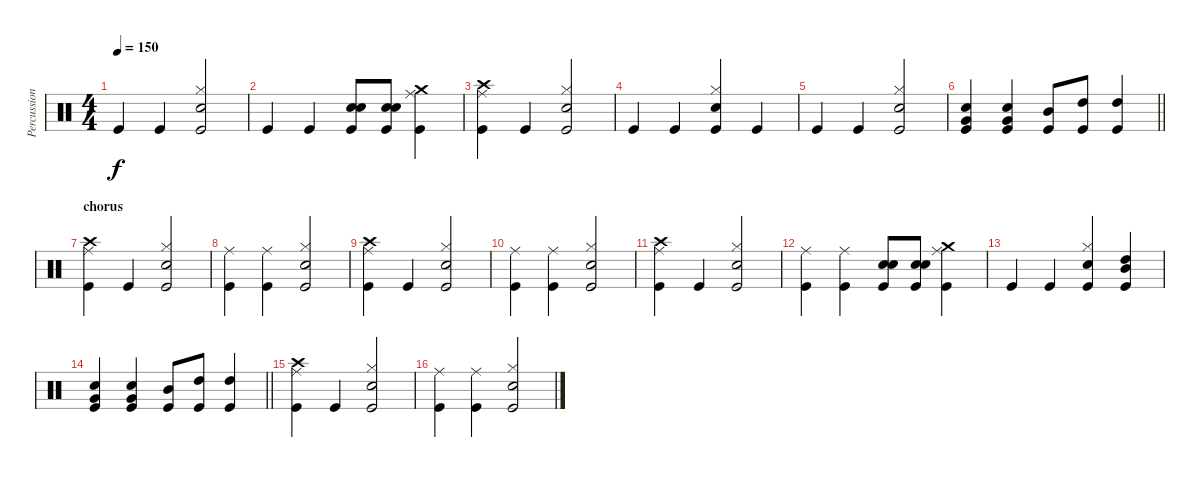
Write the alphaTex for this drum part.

\track ("Percussion" "Percussion") {instrument percussion}
\staff {score}
\articulation defaults
\ts (4 4)
\tempo 150
\clef neutral
\ks c "Kick (hit)".4{dy f} "Kick (hit)".4
("Hi-Hat (closed)" "Electric Snare (hit)" "Kick (hit)").2 |
"Kick (hit)".4 "Kick (hit)".4 ("Electric Snare (hit)" "Electric Snare (hit)" "Kick (hit)").8 ("Electric Snare (hit)" "Electric Snare (hit)" "Kick (hit)").8 ("Crash medium (hit)" "Ride (middle)" "Kick (hit)").4 |
("Crash high (hit)" "Ride (middle)" "Kick (hit)").4 "Kick (hit)".4 ("Hi-Hat (closed)" "Electric Snare (hit)" "Kick (hit)").2 |
"Kick (hit)".4 "Kick (hit)".4 ("Hi-Hat (closed)" "Electric Snare (hit)" "Kick (hit)").4 "Kick (hit)".4 |
"Kick (hit)".4 "Kick (hit)".4 ("Hi-Hat (closed)" "Electric Snare (hit)" "Kick (hit)").2 |
\barLineRight lightlight
("Electric Snare (hit)" "Very Low Tom (hit)" "Kick (hit)").4 ("Electric Snare (hit)" "Very Low Tom (hit)" "Kick (hit)").4 ("Mid Tom (hit)" "Kick (hit)").8 ("High Tom (hit)" "Kick (hit)").8 ("High Tom (hit)" "Kick (hit)").4 |
\section ("" "chorus")
("Crash high (hit)" "Ride (middle)" "Kick (hit)").4 "Kick (hit)".4 ("Hi-Hat (closed)" "Electric Snare (hit)" "Kick (hit)").2 |
("Ride (middle)" "Kick (hit)").4 ("Ride (middle)" "Kick (hit)").4 ("Hi-Hat (closed)" "Electric Snare (hit)" "Kick (hit)").2 |
("Crash high (hit)" "Ride (middle)" "Kick (hit)").4 "Kick (hit)".4 ("Hi-Hat (closed)" "Electric Snare (hit)" "Kick (hit)").2 |
("Ride (middle)" "Kick (hit)").4 ("Ride (middle)" "Kick (hit)").4 ("Hi-Hat (closed)" "Electric Snare (hit)" "Kick (hit)").2 |
("Crash high (hit)" "Ride (middle)" "Kick (hit)").4 "Kick (hit)".4 ("Hi-Hat (closed)" "Electric Snare (hit)" "Kick (hit)").2 |
("Ride (middle)" "Kick (hit)").4 ("Ride (middle)" "Kick (hit)").4 ("Electric Snare (hit)" "Electric Snare (hit)" "Kick (hit)").8 ("Electric Snare (hit)" "Electric Snare (hit)" "Kick (hit)").8 ("Crash medium (hit)" "Ride (middle)" "Kick (hit)").4 |
"Kick (hit)".4 "Kick (hit)".4 ("Hi-Hat (closed)" "Electric Snare (hit)" "Kick (hit)").4 ("Mid Tom (hit)" "High Tom (hit)" "Kick (hit)").4 |
\barLineRight lightlight
("Electric Snare (hit)" "Very Low Tom (hit)" "Kick (hit)").4 ("Electric Snare (hit)" "Very Low Tom (hit)" "Kick (hit)").4 ("Mid Tom (hit)" "Kick (hit)").8 ("High Tom (hit)" "Kick (hit)").8 ("High Tom (hit)" "Kick (hit)").4 |
("Crash high (hit)" "Ride (middle)" "Kick (hit)").4 "Kick (hit)".4 ("Hi-Hat (closed)" "Electric Snare (hit)" "Kick (hit)").2 |
("Ride (middle)" "Kick (hit)").4 ("Ride (middle)" "Kick (hit)").4 ("Hi-Hat (closed)" "Electric Snare (hit)" "Kick (hit)").2
